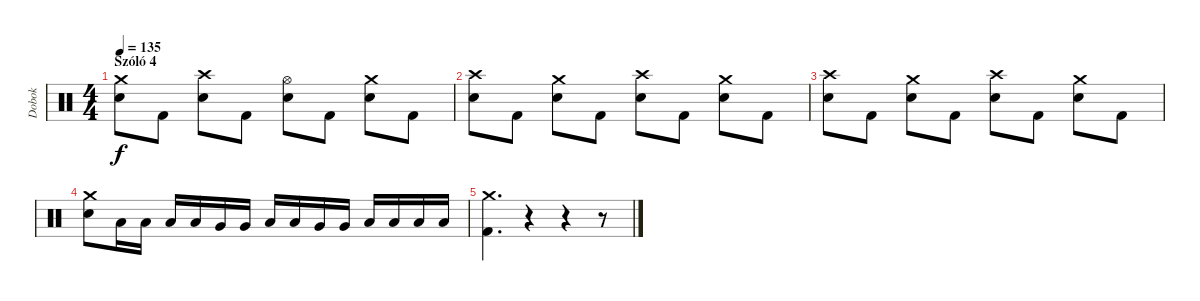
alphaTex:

\track ("Dobok" "Dobok") {instrument percussion}
\staff {score}
\articulation defaults
\ts (4 4)
\section ("" "Szóló 4")
\tempo 135
\clef neutral
\ks c
("Crash medium (hit)" "Electric Snare (hit)").8{dy f} "Kick (hit) 2".8 ("Crash high (hit)" "Electric Snare (hit)").8 "Kick (hit) 2".8 ("Hi-Hat (open)" "Electric Snare (hit)").8 "Kick (hit) 2".8 ("Crash medium (hit)" "Electric Snare (hit)").8 "Kick (hit) 2".8 |
("Crash high (hit)" "Electric Snare (hit)").8 "Kick (hit) 2".8 ("Crash medium (hit)" "Electric Snare (hit)").8 "Kick (hit) 2".8 ("Crash high (hit)" "Electric Snare (hit)").8 "Kick (hit) 2".8 ("Crash medium (hit)" "Electric Snare (hit)").8 "Kick (hit) 2".8 |
("Crash high (hit)" "Electric Snare (hit)").8 "Kick (hit) 2".8 ("Crash medium (hit)" "Electric Snare (hit)").8 "Kick (hit) 2".8 ("Crash high (hit)" "Electric Snare (hit)").8 "Kick (hit) 2".8 ("Crash medium (hit)" "Electric Snare (hit)").8 "Kick (hit) 2".8 |
("Crash medium (hit)" "Electric Snare (hit)").8 "Low Tom (hit)".16 "Low Tom (hit)".16 "Low Tom (hit)".16 "Low Tom (hit)".16 "Very Low Tom (hit)".16 "Very Low Tom (hit)".16 "Low Tom (hit)".16 "Low Tom (hit)".16 "Very Low Tom (hit)".16 "Very Low Tom (hit)".16 "Low Floor Tom (hit)".16 "Low Floor Tom (hit)".16 "Low Floor Tom (hit)".16 "Low Floor Tom (hit)".16 |
("Crash medium (hit)" "Kick (hit) 2").4{d} r.4 r.4 r.8
